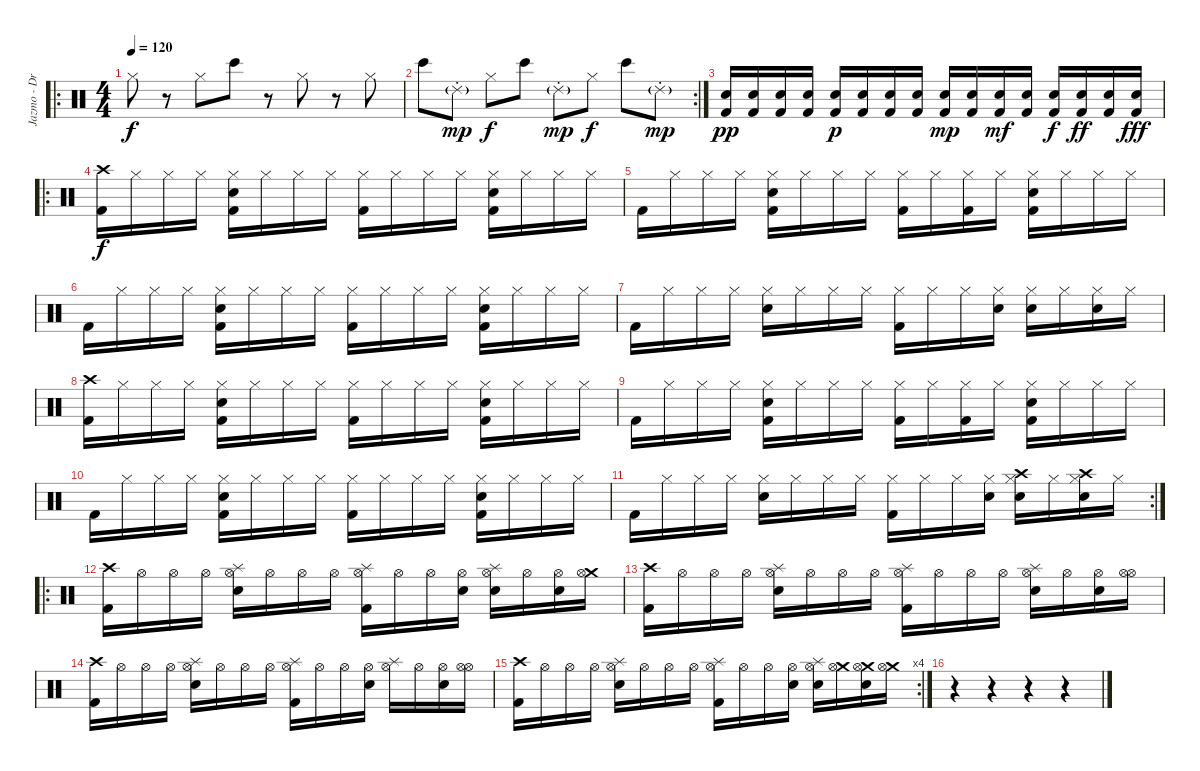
\track ("Jazmo - Drums" "Jazmo - Dr") {instrument percussion}
\staff {score}
\articulation defaults
\ro
\ts (4 4)
\tempo 120
\clef neutral
\ks c "Hi-Hat (closed)".8{dy f}
r.8 "Hi-Hat (closed)".8 "Bongo High (hit)".8 r.8 "Hi-Hat (closed)".8 r.8 "Hi-Hat (closed)".8 |
\rc 2 "Bongo High (hit)".8 "Ride (choke) 2"{g}.8{dy mp} "Hi-Hat (closed)".8{dy f} "Bongo High (hit)".8 "Ride (choke) 2"{g}.8{dy mp} "Hi-Hat (closed)".8{dy f} "Bongo High (hit)".8 "Ride (choke) 2"{g}.8{dy mp}
|
("Kick (hit) 2" "Electric Snare (hit)").16{dy pp} ("Kick (hit) 2" "Electric Snare (hit)").16 ("Kick (hit) 2" "Electric Snare (hit)").16 ("Kick (hit) 2" "Electric Snare (hit)").16 ("Kick (hit) 2" "Electric Snare (hit)").16{dy p} ("Kick (hit) 2" "Electric Snare (hit)").16 ("Kick (hit) 2" "Electric Snare (hit)").16 ("Kick (hit) 2" "Electric Snare (hit)").16 ("Kick (hit) 2" "Electric Snare (hit)").16{dy mp} ("Kick (hit) 2" "Electric Snare (hit)").16 ("Kick (hit) 2" "Electric Snare (hit)").16{dy mf} ("Kick (hit) 2" "Electric Snare (hit)").16 ("Kick (hit) 2" "Electric Snare (hit)").16{dy f} ("Kick (hit) 2" "Electric Snare (hit)").16{dy ff} ("Kick (hit) 2" "Electric Snare (hit)").16 ("Kick (hit) 2" "Electric Snare (hit)").16{dy fff} |
\ro
("Crash high (hit)" "Kick (hit) 2").16{dy f} "Hi-Hat (closed)".16 "Hi-Hat (closed)".16 "Hi-Hat (closed)".16 ("Kick (hit) 2" "Hi-Hat (closed)" "Electric Snare (hit)").16 "Hi-Hat (closed)".16 "Hi-Hat (closed)".16 "Hi-Hat (closed)".16 ("Hi-Hat (closed)" "Kick (hit) 2").16 "Hi-Hat (closed)".16 "Hi-Hat (closed)".16 "Hi-Hat (closed)".16 ("Kick (hit) 2" "Hi-Hat (closed)" "Electric Snare (hit)").16 "Hi-Hat (closed)".16 "Hi-Hat (closed)".16 "Hi-Hat (closed)".16 |
"Kick (hit) 2".16 "Hi-Hat (closed)".16 "Hi-Hat (closed)".16 "Hi-Hat (closed)".16 ("Kick (hit) 2" "Hi-Hat (closed)" "Electric Snare (hit)").16 "Hi-Hat (closed)".16 "Hi-Hat (closed)".16 "Hi-Hat (closed)".16 ("Hi-Hat (closed)" "Kick (hit) 2").16 "Hi-Hat (closed)".16 ("Hi-Hat (closed)" "Kick (hit) 2").16 "Hi-Hat (closed)".16 ("Kick (hit) 2" "Hi-Hat (closed)" "Electric Snare (hit)").16 "Hi-Hat (closed)".16 "Hi-Hat (closed)".16 "Hi-Hat (closed)".16 |
"Kick (hit) 2".16 "Hi-Hat (closed)".16 "Hi-Hat (closed)".16 "Hi-Hat (closed)".16 ("Kick (hit) 2" "Hi-Hat (closed)" "Electric Snare (hit)").16 "Hi-Hat (closed)".16 "Hi-Hat (closed)".16 "Hi-Hat (closed)".16 ("Hi-Hat (closed)" "Kick (hit) 2").16 "Hi-Hat (closed)".16 "Hi-Hat (closed)".16 "Hi-Hat (closed)".16 ("Kick (hit) 2" "Hi-Hat (closed)" "Electric Snare (hit)").16 "Hi-Hat (closed)".16 "Hi-Hat (closed)".16 "Hi-Hat (closed)".16 |
"Kick (hit) 2".16 "Hi-Hat (closed)".16 "Hi-Hat (closed)".16 "Hi-Hat (closed)".16 ("Hi-Hat (closed)" "Electric Snare (hit)").16 "Hi-Hat (closed)".16 "Hi-Hat (closed)".16 "Hi-Hat (closed)".16 ("Hi-Hat (closed)" "Kick (hit) 2").16 "Hi-Hat (closed)".16 "Hi-Hat (closed)".16 ("Hi-Hat (closed)" "Electric Snare (hit)").16 ("Hi-Hat (closed)" "Electric Snare (hit)").16 "Hi-Hat (closed)".16 ("Hi-Hat (closed)" "Electric Snare (hit)").16 "Hi-Hat (closed)".16 |
("Crash high (hit)" "Kick (hit) 2").16 "Hi-Hat (closed)".16 "Hi-Hat (closed)".16 "Hi-Hat (closed)".16 ("Kick (hit) 2" "Hi-Hat (closed)" "Electric Snare (hit)").16 "Hi-Hat (closed)".16 "Hi-Hat (closed)".16 "Hi-Hat (closed)".16 ("Hi-Hat (closed)" "Kick (hit) 2").16 "Hi-Hat (closed)".16 "Hi-Hat (closed)".16 "Hi-Hat (closed)".16 ("Kick (hit) 2" "Hi-Hat (closed)" "Electric Snare (hit)").16 "Hi-Hat (closed)".16 "Hi-Hat (closed)".16 "Hi-Hat (closed)".16 |
"Kick (hit) 2".16 "Hi-Hat (closed)".16 "Hi-Hat (closed)".16 "Hi-Hat (closed)".16 ("Kick (hit) 2" "Hi-Hat (closed)" "Electric Snare (hit)").16 "Hi-Hat (closed)".16 "Hi-Hat (closed)".16 "Hi-Hat (closed)".16 ("Hi-Hat (closed)" "Kick (hit) 2").16 "Hi-Hat (closed)".16 ("Hi-Hat (closed)" "Kick (hit) 2").16 "Hi-Hat (closed)".16 ("Kick (hit) 2" "Hi-Hat (closed)" "Electric Snare (hit)").16 "Hi-Hat (closed)".16 "Hi-Hat (closed)".16 "Hi-Hat (closed)".16 |
"Kick (hit) 2".16 "Hi-Hat (closed)".16 "Hi-Hat (closed)".16 "Hi-Hat (closed)".16 ("Kick (hit) 2" "Hi-Hat (closed)" "Electric Snare (hit)").16 "Hi-Hat (closed)".16 "Hi-Hat (closed)".16 "Hi-Hat (closed)".16 ("Hi-Hat (closed)" "Kick (hit) 2").16 "Hi-Hat (closed)".16 "Hi-Hat (closed)".16 "Hi-Hat (closed)".16 ("Kick (hit) 2" "Hi-Hat (closed)" "Electric Snare (hit)").16 "Hi-Hat (closed)".16 "Hi-Hat (closed)".16 "Hi-Hat (closed)".16 |
\rc 2 "Kick (hit) 2".16 "Hi-Hat (closed)".16 "Hi-Hat (closed)".16 "Hi-Hat (closed)".16
("Hi-Hat (closed)" "Electric Snare (hit)").16 "Hi-Hat (closed)".16 "Hi-Hat (closed)".16 "Hi-Hat (closed)".16 ("Hi-Hat (closed)" "Kick (hit) 2").16 "Hi-Hat (closed)".16 "Hi-Hat (closed)".16 ("Hi-Hat (closed)" "Electric Snare (hit)").16 ("Crash high (hit)" "Hi-Hat (closed)" "Electric Snare (hit)").16 "Hi-Hat (closed)".16 ("Crash high (hit)" "Hi-Hat (closed)" "Electric Snare (hit)").16 "Hi-Hat (closed)".16 |
\ro
("Crash high (hit)" "Kick (hit) 2").16 "Hi-Hat (open)".16 "Hi-Hat (open)".16 "Hi-Hat (open)".16 ("Splash (hit)" "Hi-Hat (open)" "Electric Snare (hit)").16 "Hi-Hat (open)".16 "Hi-Hat (open)".16 "Hi-Hat (open)".16 ("Splash (hit)" "Hi-Hat (open)" "Kick (hit) 2").16 "Hi-Hat (open)".16 "Hi-Hat (open)".16 ("Hi-Hat (open)" "Electric Snare (hit)").16 ("Splash (hit)" "Hi-Hat (open)" "Electric Snare (hit)").16 "Hi-Hat (open)".16 ("Hi-Hat (open)" "Electric Snare (hit)").16 ("Crash medium (hit)" "Hi-Hat (open)").16 |
("Crash high (hit)" "Kick (hit) 2").16 "Hi-Hat (open)".16 "Hi-Hat (open)".16 "Hi-Hat (open)".16 ("Splash (hit)" "Hi-Hat (open)" "Electric Snare (hit)").16 "Hi-Hat (open)".16 "Hi-Hat (open)".16 "Hi-Hat (open)".16 ("Splash (hit)" "Hi-Hat (open)" "Kick (hit) 2").16 "Hi-Hat (open)".16 "Hi-Hat (open)".16 "Hi-Hat (open)".16 ("Splash (hit)" "Hi-Hat (open)" "Electric Snare (hit)").16 "Hi-Hat (open)".16 ("Hi-Hat (open)" "Electric Snare (hit)").16 ("Hi-Hat (open)" "Hi-Hat (open)").16 |
("Crash high (hit)" "Kick (hit) 2").16 "Hi-Hat (open)".16 "Hi-Hat (open)".16 "Hi-Hat (open)".16 ("Splash (hit)" "Hi-Hat (open)" "Electric Snare (hit)").16 "Hi-Hat (open)".16 "Hi-Hat (open)".16 "Hi-Hat (open)".16 ("Splash (hit)" "Hi-Hat (open)" "Kick (hit) 2").16 "Hi-Hat (open)".16 "Hi-Hat (open)".16 ("Hi-Hat (open)" "Electric Snare (hit)").16 ("Splash (hit)" "Hi-Hat (open)").16 "Hi-Hat (open)".16 ("Hi-Hat (open)" "Electric Snare (hit)").16 ("Hi-Hat (open)" "Hi-Hat (open)").16 |
\rc 4
("Crash high (hit)" "Kick (hit) 2").16 "Hi-Hat (open)".16 "Hi-Hat (open)".16 "Hi-Hat (open)".16 ("Splash (hit)" "Hi-Hat (open)" "Electric Snare (hit)").16 "Hi-Hat (open)".16 "Hi-Hat (open)".16 "Hi-Hat (open)".16 ("Splash (hit)" "Hi-Hat (open)" "Kick (hit) 2").16 "Hi-Hat (open)".16 "Hi-Hat (open)".16 ("Hi-Hat (open)" "Electric Snare (hit)").16 ("Splash (hit)" "Hi-Hat (open)" "Electric Snare (hit)").16 ("Crash medium (hit)" "Hi-Hat (open)").16 ("Crash medium (hit)" "Hi-Hat (open)" "Electric Snare (hit)").16 ("Crash medium (hit)" "Hi-Hat (open)").16 |
r.4 r.4 r.4 r.4
